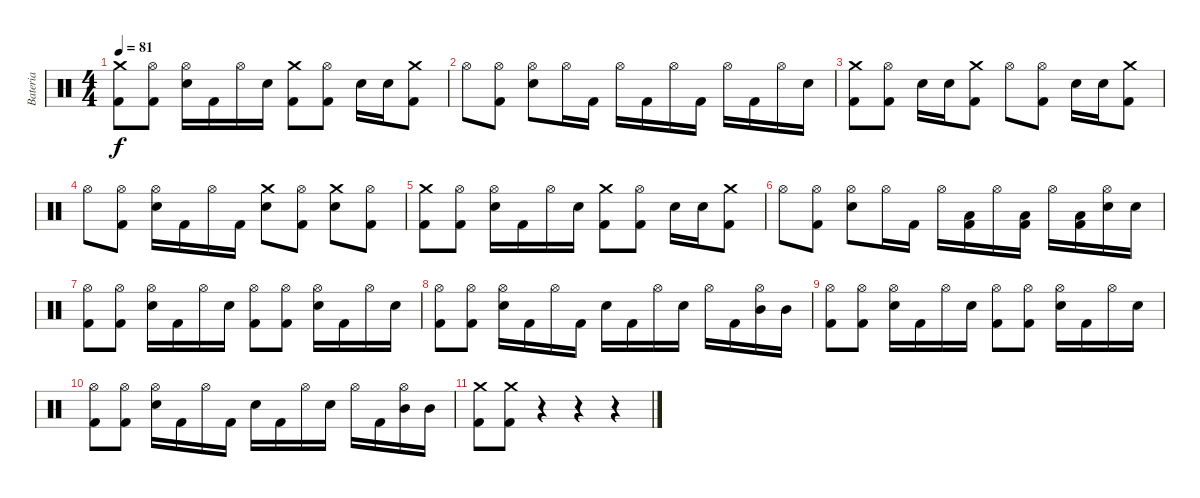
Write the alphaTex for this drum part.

\track ("Bateria" "Bateria") {instrument percussion}
\staff {score}
\articulation defaults
\ts (4 4)
\tempo 81
\clef neutral
\ks c
("Crash medium (hit)" "Kick (hit) 2").8{dy f} ("Hi-Hat (open)" "Kick (hit) 2").8 ("Hi-Hat (open)" "Electric Snare (hit)").16 "Kick (hit) 2".16 "Hi-Hat (open)".16 "Electric Snare (hit)".16 ("Crash medium (hit)" "Kick (hit) 2").8 ("Hi-Hat (open)" "Kick (hit) 2").8 "Electric Snare (hit)".16 "Electric Snare (hit)".16 ("Crash medium (hit)" "Kick (hit) 2").8 |
"Hi-Hat (open)".8 ("Hi-Hat (open)" "Kick (hit) 2").8 ("Hi-Hat (open)" "Electric Snare (hit)").8 "Hi-Hat (open)".16 "Kick (hit) 2".16 "Hi-Hat (open)".16 "Kick (hit) 2".16 "Hi-Hat (open)".16 "Kick (hit) 2".16 "Hi-Hat (open)".16 "Kick (hit) 2".16 "Hi-Hat (open)".16 "Electric Snare (hit)".16 |
("Crash medium (hit)" "Kick (hit) 2").8 ("Hi-Hat (open)" "Kick (hit) 2").8 "Electric Snare (hit)".16 "Electric Snare (hit)".16 ("Crash medium (hit)" "Kick (hit) 2").8 "Hi-Hat (open)".8 ("Hi-Hat (open)" "Kick (hit) 2").8 "Electric Snare (hit)".16 "Electric Snare (hit)".16 ("Crash medium (hit)" "Kick (hit) 2").8 |
"Hi-Hat (open)".8 ("Hi-Hat (open)" "Kick (hit) 2").8 ("Hi-Hat (open)" "Electric Snare (hit)").16 "Kick (hit) 2".16 "Hi-Hat (open)".16 "Kick (hit) 2".16 ("Crash medium (hit)" "Electric Snare (hit)").8 ("Hi-Hat (open)" "Kick (hit) 2").8 ("Crash medium (hit)" "Electric Snare (hit)").8 ("Hi-Hat (open)" "Kick (hit) 2").8 |
("Crash medium (hit)" "Kick (hit) 2").8 ("Hi-Hat (open)" "Kick (hit) 2").8 ("Hi-Hat (open)" "Electric Snare (hit)").16 "Kick (hit) 2".16 "Hi-Hat (open)".16 "Electric Snare (hit)".16 ("Crash medium (hit)" "Kick (hit) 2").8 ("Hi-Hat (open)" "Kick (hit) 2").8 "Electric Snare (hit)".16 "Electric Snare (hit)".16 ("Crash medium (hit)" "Kick (hit) 2").8 |
"Hi-Hat (open)".8 ("Hi-Hat (open)" "Kick (hit) 2").8 ("Hi-Hat (open)" "Electric Snare (hit)").8 "Hi-Hat (open)".16 "Kick (hit) 2".16 "Hi-Hat (open)".16 ("Low Tom (hit)" "Kick (hit) 2").16 "Hi-Hat (open)".16 ("Low Tom (hit)" "Kick (hit) 2").16 "Hi-Hat (open)".16 ("Low Tom (hit)" "Kick (hit) 2").16 ("Hi-Hat (open)" "Electric Snare (hit)").16 "Electric Snare (hit)".16 |
("Hi-Hat (open)" "Kick (hit) 2").8 ("Hi-Hat (open)" "Kick (hit) 2").8 ("Hi-Hat (open)" "Electric Snare (hit)").16 "Kick (hit) 2".16 "Hi-Hat (open)".16 "Electric Snare (hit)".16 ("Hi-Hat (open)" "Kick (hit) 2").8 ("Hi-Hat (open)" "Kick (hit) 2").8 ("Hi-Hat (open)" "Electric Snare (hit)").16 "Kick (hit) 2".16 "Hi-Hat (open)".16 "Electric Snare (hit)".16 |
("Hi-Hat (open)" "Kick (hit) 2").8 ("Hi-Hat (open)" "Kick (hit) 2").8 ("Hi-Hat (open)" "Electric Snare (hit)").16 "Kick (hit) 2".16 "Hi-Hat (open)".16 "Kick (hit) 2".16 "Electric Snare (hit)".16 "Kick (hit) 2".16 "Hi-Hat (open)".16 "Electric Snare (hit)".16 "Hi-Hat (open)".16 "Kick (hit) 2".16 ("Hi-Hat (open)" "Mid Tom (hit)").16 "Mid Tom (hit)".16 |
("Hi-Hat (open)" "Kick (hit) 2").8 ("Hi-Hat (open)" "Kick (hit) 2").8 ("Hi-Hat (open)" "Electric Snare (hit)").16 "Kick (hit) 2".16 "Hi-Hat (open)".16 "Electric Snare (hit)".16 ("Hi-Hat (open)" "Kick (hit) 2").8 ("Hi-Hat (open)" "Kick (hit) 2").8 ("Hi-Hat (open)" "Electric Snare (hit)").16 "Kick (hit) 2".16 "Hi-Hat (open)".16 "Electric Snare (hit)".16 |
("Hi-Hat (open)" "Kick (hit) 2").8 ("Hi-Hat (open)" "Kick (hit) 2").8 ("Hi-Hat (open)" "Electric Snare (hit)").16 "Kick (hit) 2".16 "Hi-Hat (open)".16 "Kick (hit) 2".16 "Electric Snare (hit)".16 "Kick (hit) 2".16 "Hi-Hat (open)".16 "Electric Snare (hit)".16 "Hi-Hat (open)".16 "Kick (hit) 2".16 ("Hi-Hat (open)" "Mid Tom (hit)").16 "Mid Tom (hit)".16 |
("Crash medium (hit)" "Kick (hit) 2").8 ("Crash medium (hit)" "Kick (hit) 2").8 r.4 r.4 r.4
